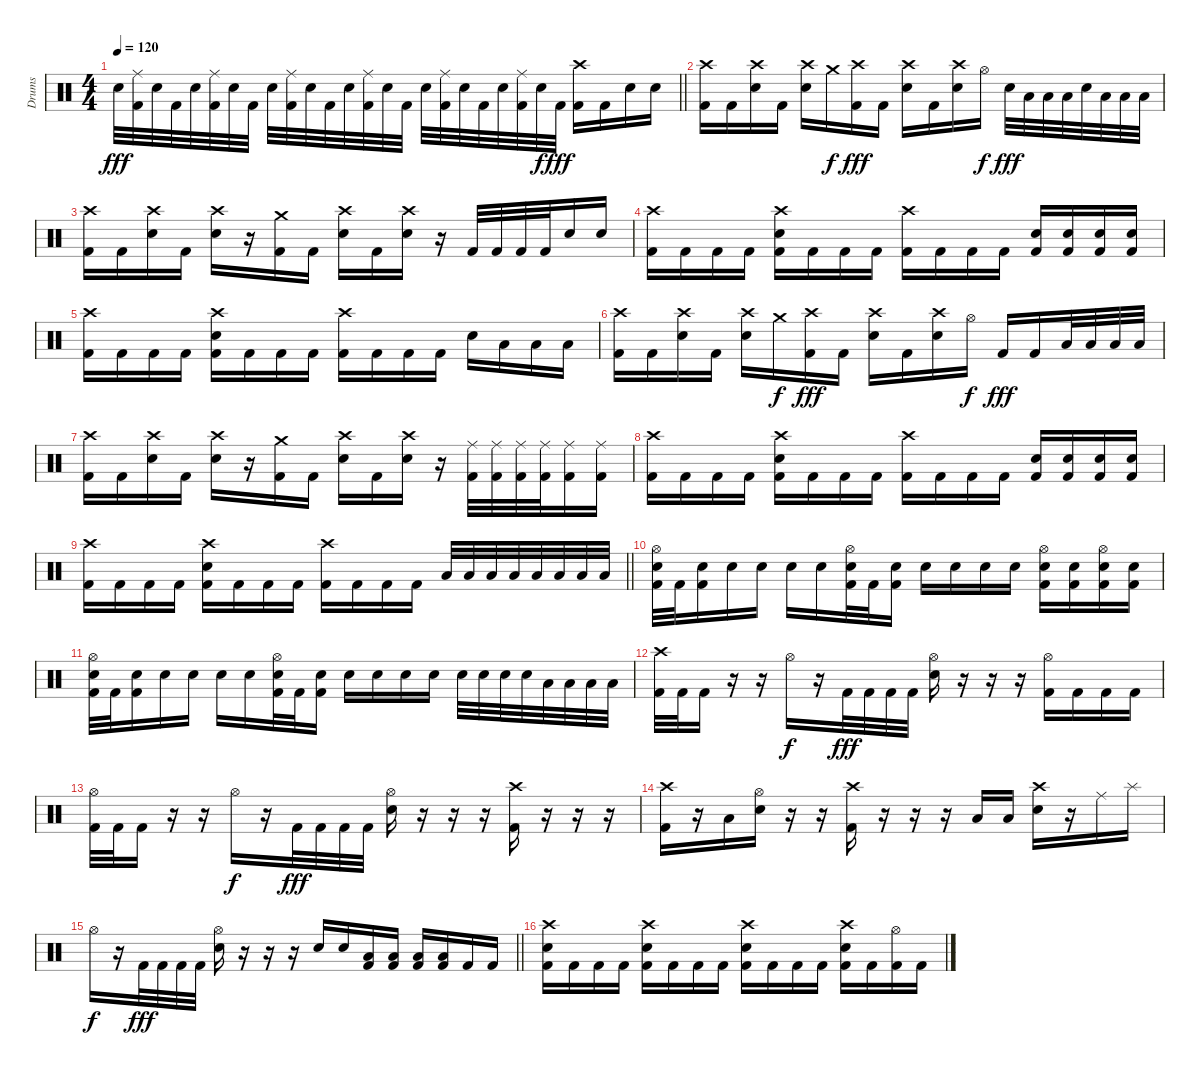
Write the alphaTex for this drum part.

\track ("Drums" "Drums") {instrument percussion}
\staff {score}
\articulation defaults
\ts (4 4)
\tempo 120
\clef neutral
\barLineRight lightlight
\ks c "Electric Snare (hit)".32{dy fff}
("Ride (middle)" "Kick (hit) 2").32 "Electric Snare (hit)".32 "Kick (hit) 2".32 "Electric Snare (hit)".32 ("Ride (middle)" "Kick (hit) 2").32 "Electric Snare (hit)".32 "Kick (hit) 2".32 "Electric Snare (hit)".32 ("Ride (middle)" "Kick (hit) 2").32 "Electric Snare (hit)".32 "Kick (hit) 2".32 "Electric Snare (hit)".32 ("Ride (middle)" "Kick (hit) 2").32 "Electric Snare (hit)".32 "Kick (hit) 2".32 "Electric Snare (hit)".32 ("Ride (middle)" "Kick (hit) 2").32 "Electric Snare (hit)".32 "Kick (hit) 2".32 "Electric Snare (hit)".32 ("Ride (middle)" "Kick (hit) 2").32 "Electric Snare (hit)".32{dy f} "Kick (hit) 2".32{dy fff} ("Crash high (hit)" "Kick (hit) 2").16 "Kick (hit) 2".16 "Electric Snare (hit)".16 "Electric Snare (hit)".16 |
\section ("" "")
("Crash high (hit)" "Kick (hit) 2").16 "Kick (hit) 2".16 ("Crash high (hit)" "Electric Snare (hit)").16 "Kick (hit) 2".16 ("Crash high (hit)" "Electric Snare (hit)").16 "Crash medium (hit)".16{dy f} ("Crash high (hit)" "Kick (hit) 2").16{dy fff} "Kick (hit) 2".16 ("Crash high (hit)" "Electric Snare (hit)").16 "Kick (hit) 2".16 ("Crash high (hit)" "Electric Snare (hit)").16 "Hi-Hat (open)".16{dy f} "Electric Snare (hit)".32{dy fff} "Low Tom (hit)".32 "Low Tom (hit)".32 "Low Floor Tom (hit)".32 "Electric Snare (hit)".32 "Low Tom (hit)".32 "Low Floor Tom (hit)".32 "Low Floor Tom (hit)".32 |
("Crash high (hit)" "Kick (hit) 2").16 "Kick (hit) 2".16 ("Crash high (hit)" "Electric Snare (hit)").16 "Kick (hit) 2".16 ("Crash high (hit)" "Electric Snare (hit)").16 r.16 ("Crash medium (hit)" "Kick (hit) 2").16 "Kick (hit) 2".16 ("Crash high (hit)" "Electric Snare (hit)").16 "Kick (hit) 2".16 ("Crash high (hit)" "Electric Snare (hit)").16 r.16 "Kick (hit) 2".32 "Kick (hit) 2".32 "Kick (hit) 2".32 "Kick (hit) 2".32 "Electric Snare (hit)".16 "Electric Snare (hit)".16 |
("Crash high (hit)" "Kick (hit) 2").16 "Kick (hit) 2".16 "Kick (hit) 2".16 "Kick (hit) 2".16 ("Crash high (hit)" "Electric Snare (hit)" "Kick (hit) 2").16 "Kick (hit) 2".16 "Kick (hit) 2".16 "Kick (hit) 2".16 ("Crash high (hit)" "Kick (hit) 2").16 "Kick (hit) 2".16 "Kick (hit) 2".16 "Kick (hit) 2".16 ("Electric Snare (hit)" "Kick (hit) 2").16 ("Electric Snare (hit)" "Kick (hit) 2").16 ("Electric Snare (hit)" "Kick (hit) 2").16 ("Electric Snare (hit)" "Kick (hit) 2").16 |
("Crash high (hit)" "Kick (hit) 2").16 "Kick (hit) 2".16 "Kick (hit) 2".16 "Kick (hit) 2".16 ("Crash high (hit)" "Electric Snare (hit)" "Kick (hit) 2").16 "Kick (hit) 2".16 "Kick (hit) 2".16 "Kick (hit) 2".16 ("Crash high (hit)" "Kick (hit) 2").16 "Kick (hit) 2".16 "Kick (hit) 2".16 "Kick (hit) 2".16 "Electric Snare (hit)".16 "Low Tom (hit)".16 "Low Tom (hit)".16 "Low Floor Tom (hit)".16 |
("Crash high (hit)" "Kick (hit) 2").16 "Kick (hit) 2".16 ("Crash high (hit)" "Electric Snare (hit)").16 "Kick (hit) 2".16 ("Crash high (hit)" "Electric Snare (hit)").16 "Crash medium (hit)".16{dy f} ("Crash high (hit)" "Kick (hit) 2").16{dy fff} "Kick (hit) 2".16 ("Crash high (hit)" "Electric Snare (hit)").16 "Kick (hit) 2".16 ("Crash high (hit)" "Electric Snare (hit)").16 "Hi-Hat (open)".16{dy f} "Kick (hit) 2".16{dy fff} "Kick (hit) 2".16 "Low Tom (hit)".32 "Low Tom (hit)".32 "Low Tom (hit)".32 "Low Floor Tom (hit)".32 |
("Crash high (hit)" "Kick (hit) 2").16 "Kick (hit) 2".16 ("Crash high (hit)" "Electric Snare (hit)").16 "Kick (hit) 2".16 ("Crash high (hit)" "Electric Snare (hit)").16 r.16 ("Crash medium (hit)" "Kick (hit) 2").16 "Kick (hit) 2".16 ("Crash high (hit)" "Electric Snare (hit)").16 "Kick (hit) 2".16 ("Crash high (hit)" "Electric Snare (hit)").16 r.16 ("Ride (middle)" "Kick (hit) 2").32 ("Ride (middle)" "Kick (hit) 2").32 ("Ride (middle)" "Kick (hit) 2").32 ("Ride (middle)" "Kick (hit) 2").32 ("Ride (middle)" "Kick (hit) 2").16 ("Ride (middle)" "Kick (hit) 2").16 |
("Crash high (hit)" "Kick (hit) 2").16 "Kick (hit) 2".16 "Kick (hit) 2".16 "Kick (hit) 2".16 ("Crash high (hit)" "Electric Snare (hit)" "Kick (hit) 2").16 "Kick (hit) 2".16 "Kick (hit) 2".16 "Kick (hit) 2".16 ("Crash high (hit)" "Kick (hit) 2").16 "Kick (hit) 2".16 "Kick (hit) 2".16 "Kick (hit) 2".16 ("Electric Snare (hit)" "Kick (hit) 2").16 ("Electric Snare (hit)" "Kick (hit) 2").16 ("Electric Snare (hit)" "Kick (hit) 2").16 ("Electric Snare (hit)" "Kick (hit) 2").16 |
\barLineRight lightlight
("Crash high (hit)" "Kick (hit) 2").16 "Kick (hit) 2".16 "Kick (hit) 2".16 "Kick (hit) 2".16 ("Crash high (hit)" "Electric Snare (hit)" "Kick (hit) 2").16 "Kick (hit) 2".16 "Kick (hit) 2".16 "Kick (hit) 2".16 ("Crash high (hit)" "Kick (hit) 2").16 "Kick (hit) 2".16 "Kick (hit) 2".16 "Kick (hit) 2".16 "Low Tom (hit)".32 "Low Tom (hit)".32 "Low Tom (hit)".32 "Low Tom (hit)".32 "Low Floor Tom (hit)".32 "Low Floor Tom (hit)".32 "Low Floor Tom (hit)".32 "Low Floor Tom (hit)".32 |
\section ("" "")
("Hi-Hat (open)" "Electric Snare (hit)" "Kick (hit) 2").32 "Kick (hit) 2".32 ("Electric Snare (hit)" "Kick (hit) 2").16 "Electric Snare (hit)".16 "Electric Snare (hit)".16 "Electric Snare (hit)".16 "Electric Snare (hit)".16 ("Hi-Hat (open)" "Electric Snare (hit)" "Kick (hit) 2").32 "Kick (hit) 2".32 ("Electric Snare (hit)" "Kick (hit) 2").16 "Electric Snare (hit)".16 "Electric Snare (hit)".16 "Electric Snare (hit)".16 "Electric Snare (hit)".16 ("Hi-Hat (open)" "Electric Snare (hit)" "Kick (hit) 2").16 ("Electric Snare (hit)" "Kick (hit) 2").16 ("Hi-Hat (open)" "Electric Snare (hit)" "Kick (hit) 2").16 ("Electric Snare (hit)" "Kick (hit) 2").16 |
("Hi-Hat (open)" "Electric Snare (hit)" "Kick (hit) 2").32 "Kick (hit) 2".32 ("Electric Snare (hit)" "Kick (hit) 2").16 "Electric Snare (hit)".16 "Electric Snare (hit)".16 "Electric Snare (hit)".16 "Electric Snare (hit)".16 ("Hi-Hat (open)" "Electric Snare (hit)" "Kick (hit) 2").32 "Kick (hit) 2".32 ("Electric Snare (hit)" "Kick (hit) 2").16 "Electric Snare (hit)".16 "Electric Snare (hit)".16 "Electric Snare (hit)".16 "Electric Snare (hit)".16 "Electric Snare (hit)".32 "Electric Snare (hit)".32 "Electric Snare (hit)".32 "Electric Snare (hit)".32 "Low Tom (hit)".32 "Low Tom (hit)".32 "Low Floor Tom (hit)".32 "Low Floor Tom (hit)".32 |
("Crash high (hit)" "Kick (hit) 2").32 "Kick (hit) 2".32 "Kick (hit) 2".16 r.16 r.16 "Hi-Hat (open)".16{dy f} r.16 "Kick (hit) 2".32{dy fff} "Kick (hit) 2".32 "Kick (hit) 2".32 "Kick (hit) 2".32 ("Hi-Hat (open)" "Electric Snare (hit)").16 r.16 r.16 r.16 ("Hi-Hat (open)" "Kick (hit) 2").16 "Kick (hit) 2".16 "Kick (hit) 2".16 "Kick (hit) 2".16 |
("Hi-Hat (open)" "Kick (hit) 2").32 "Kick (hit) 2".32 "Kick (hit) 2".16 r.16 r.16 "Hi-Hat (open)".16{dy f} r.16 "Kick (hit) 2".32{dy fff} "Kick (hit) 2".32 "Kick (hit) 2".32 "Kick (hit) 2".32 ("Hi-Hat (open)" "Electric Snare (hit)").16 r.16 r.16 r.16 ("Crash high (hit)" "Kick (hit) 2").16 r.16 r.16 r.16 |
("Crash high (hit)" "Kick (hit) 2").16 r.16 "Low Tom (hit)".16 ("Hi-Hat (open)" "Electric Snare (hit)").16 r.16 r.16 ("Crash high (hit)" "Kick (hit) 2").16 r.16 r.16 r.16 "Low Floor Tom (hit)".16 "Low Tom (hit)".16 ("Crash high (hit)" "Electric Snare (hit)").16 r.16 "Ride (middle)".16 "Splash (hit)".16 |
\barLineRight lightlight "Hi-Hat (open)".16{dy f}
r.16 "Kick (hit) 2".32{dy fff} "Kick (hit) 2".32 "Kick (hit) 2".32 "Kick (hit) 2".32 ("Hi-Hat (open)" "Electric Snare (hit)").16 r.16 r.16 r.16 "Electric Snare (hit)".16 "Electric Snare (hit)".16 ("Low Tom (hit)" "Kick (hit) 2").16 ("Low Tom (hit)" "Kick (hit) 2").16 ("Low Floor Tom (hit)" "Kick (hit) 2").16 ("Low Floor Tom (hit)" "Kick (hit) 2").16 "Kick (hit) 2".16 "Kick (hit) 2".16 |
\section ("" "")
("Crash high (hit)" "Electric Snare (hit)" "Kick (hit) 2").16 "Kick (hit) 2".16 "Kick (hit) 2".16 "Kick (hit) 2".16 ("Crash high (hit)" "Electric Snare (hit)" "Kick (hit) 2").16 "Kick (hit) 2".16 "Kick (hit) 2".16 "Kick (hit) 2".16 ("Crash high (hit)" "Electric Snare (hit)" "Kick (hit) 2").16 "Kick (hit) 2".16 "Kick (hit) 2".16 "Kick (hit) 2".16 ("Crash high (hit)" "Electric Snare (hit)" "Kick (hit) 2").16 "Kick (hit) 2".16 ("Hi-Hat (open)" "Kick (hit) 2").16 "Kick (hit) 2".16
